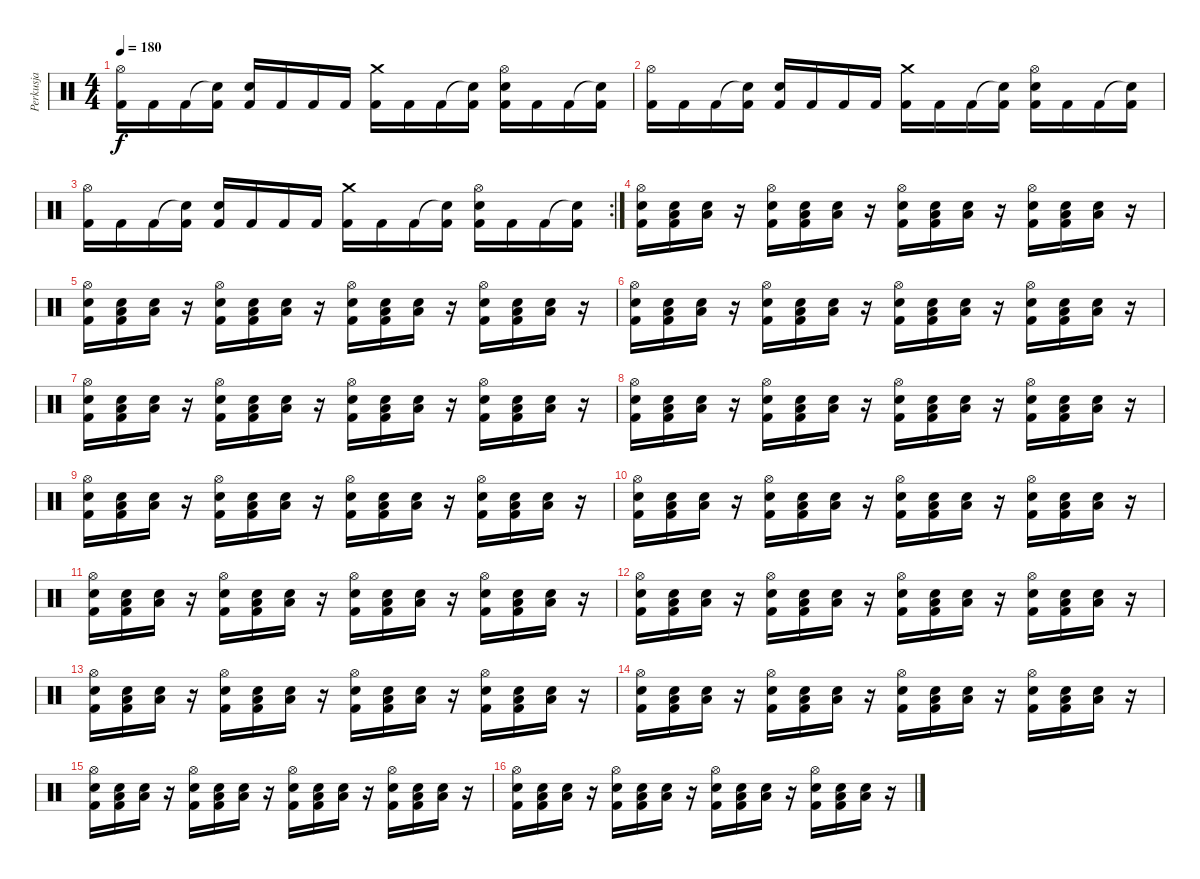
\track ("Perkusja" "Perkusja") {instrument percussion}
\staff {score}
\articulation defaults
\ts (4 4)
\tempo 180
\clef neutral
\ks c
("Hi-Hat (open)" "Kick (hit) 2").16{dy f} "Kick (hit) 2".16 "Kick (hit) 2".16 ("Snare (hit)"{t} "Kick (hit) 2").16 ("Electric Snare (hit)" "Kick (hit) 2").16 "Kick (hit) 2".16 "Kick (hit) 2".16 "Kick (hit) 2".16 ("Crash medium (hit)" "Kick (hit) 2").16 "Kick (hit) 2".16 "Kick (hit) 2".16 ("Snare (hit)"{t} "Kick (hit) 2").16 ("Hi-Hat (open)" "Electric Snare (hit)" "Kick (hit) 2").16 "Kick (hit) 2".16 "Kick (hit) 2".16 ("Snare (hit)"{t} "Kick (hit) 2").16 |
("Hi-Hat (open)" "Kick (hit) 2").16 "Kick (hit) 2".16 "Kick (hit) 2".16 ("Snare (hit)"{t} "Kick (hit) 2").16 ("Electric Snare (hit)" "Kick (hit) 2").16 "Kick (hit) 2".16 "Kick (hit) 2".16 "Kick (hit) 2".16 ("Crash medium (hit)" "Kick (hit) 2").16 "Kick (hit) 2".16 "Kick (hit) 2".16 ("Snare (hit)"{t} "Kick (hit) 2").16 ("Hi-Hat (open)" "Electric Snare (hit)" "Kick (hit) 2").16 "Kick (hit) 2".16 "Kick (hit) 2".16 ("Snare (hit)"{t} "Kick (hit) 2").16 |
\rc 2
("Hi-Hat (open)" "Kick (hit) 2").16 "Kick (hit) 2".16 "Kick (hit) 2".16 ("Snare (hit)"{t} "Kick (hit) 2").16 ("Electric Snare (hit)" "Kick (hit) 2").16 "Kick (hit) 2".16 "Kick (hit) 2".16 "Kick (hit) 2".16 ("Crash medium (hit)" "Kick (hit) 2").16 "Kick (hit) 2".16 "Kick (hit) 2".16 ("Snare (hit)"{t} "Kick (hit) 2").16 ("Hi-Hat (open)" "Electric Snare (hit)" "Kick (hit) 2").16 "Kick (hit) 2".16 "Kick (hit) 2".16 ("Snare (hit)"{t} "Kick (hit) 2").16 |
("Hi-Hat (open)" "Snare (hit) 2" "Kick (hit) 2").16 ("Low Tom (hit)" "Snare (hit) 2" "Kick (hit) 2").16 ("Low Tom (hit)" "Snare (hit) 2").16 r.16 ("Hi-Hat (open)" "Snare (hit) 2" "Kick (hit) 2").16 ("Low Tom (hit)" "Snare (hit) 2" "Kick (hit) 2").16 ("Low Tom (hit)" "Snare (hit) 2").16 r.16 ("Hi-Hat (open)" "Snare (hit) 2" "Kick (hit) 2").16 ("Low Tom (hit)" "Snare (hit) 2" "Kick (hit) 2").16 ("Low Tom (hit)" "Snare (hit) 2").16 r.16 ("Hi-Hat (open)" "Snare (hit) 2" "Kick (hit) 2").16 ("Low Tom (hit)" "Snare (hit) 2" "Kick (hit) 2").16 ("Low Tom (hit)" "Snare (hit) 2").16 r.16 |
("Hi-Hat (open)" "Snare (hit) 2" "Kick (hit) 2").16 ("Low Tom (hit)" "Snare (hit) 2" "Kick (hit) 2").16 ("Low Tom (hit)" "Snare (hit) 2").16 r.16 ("Hi-Hat (open)" "Snare (hit) 2" "Kick (hit) 2").16 ("Low Tom (hit)" "Snare (hit) 2" "Kick (hit) 2").16 ("Low Tom (hit)" "Snare (hit) 2").16 r.16 ("Hi-Hat (open)" "Snare (hit) 2" "Kick (hit) 2").16 ("Low Tom (hit)" "Snare (hit) 2" "Kick (hit) 2").16 ("Low Tom (hit)" "Snare (hit) 2").16 r.16 ("Hi-Hat (open)" "Snare (hit) 2" "Kick (hit) 2").16 ("Low Tom (hit)" "Snare (hit) 2" "Kick (hit) 2").16 ("Low Tom (hit)" "Snare (hit) 2").16 r.16 |
("Hi-Hat (open)" "Snare (hit) 2" "Kick (hit) 2").16 ("Low Tom (hit)" "Snare (hit) 2" "Kick (hit) 2").16 ("Low Tom (hit)" "Snare (hit) 2").16 r.16 ("Hi-Hat (open)" "Snare (hit) 2" "Kick (hit) 2").16 ("Low Tom (hit)" "Snare (hit) 2" "Kick (hit) 2").16 ("Low Tom (hit)" "Snare (hit) 2").16 r.16 ("Hi-Hat (open)" "Snare (hit) 2" "Kick (hit) 2").16 ("Low Tom (hit)" "Snare (hit) 2" "Kick (hit) 2").16 ("Low Tom (hit)" "Snare (hit) 2").16 r.16 ("Hi-Hat (open)" "Snare (hit) 2" "Kick (hit) 2").16 ("Low Tom (hit)" "Snare (hit) 2" "Kick (hit) 2").16 ("Low Tom (hit)" "Snare (hit) 2").16 r.16 |
("Hi-Hat (open)" "Snare (hit) 2" "Kick (hit) 2").16 ("Low Tom (hit)" "Snare (hit) 2" "Kick (hit) 2").16 ("Low Tom (hit)" "Snare (hit) 2").16 r.16 ("Hi-Hat (open)" "Snare (hit) 2" "Kick (hit) 2").16 ("Low Tom (hit)" "Snare (hit) 2" "Kick (hit) 2").16 ("Low Tom (hit)" "Snare (hit) 2").16 r.16 ("Hi-Hat (open)" "Snare (hit) 2" "Kick (hit) 2").16 ("Low Tom (hit)" "Snare (hit) 2" "Kick (hit) 2").16 ("Low Tom (hit)" "Snare (hit) 2").16 r.16 ("Hi-Hat (open)" "Snare (hit) 2" "Kick (hit) 2").16 ("Low Tom (hit)" "Snare (hit) 2" "Kick (hit) 2").16 ("Low Tom (hit)" "Snare (hit) 2").16 r.16 |
("Hi-Hat (open)" "Snare (hit) 2" "Kick (hit) 2").16 ("Low Tom (hit)" "Snare (hit) 2" "Kick (hit) 2").16 ("Low Tom (hit)" "Snare (hit) 2").16 r.16 ("Hi-Hat (open)" "Snare (hit) 2" "Kick (hit) 2").16 ("Low Tom (hit)" "Snare (hit) 2" "Kick (hit) 2").16 ("Low Tom (hit)" "Snare (hit) 2").16 r.16 ("Hi-Hat (open)" "Snare (hit) 2" "Kick (hit) 2").16 ("Low Tom (hit)" "Snare (hit) 2" "Kick (hit) 2").16 ("Low Tom (hit)" "Snare (hit) 2").16 r.16 ("Hi-Hat (open)" "Snare (hit) 2" "Kick (hit) 2").16 ("Low Tom (hit)" "Snare (hit) 2" "Kick (hit) 2").16 ("Low Tom (hit)" "Snare (hit) 2").16 r.16 |
("Hi-Hat (open)" "Snare (hit) 2" "Kick (hit) 2").16 ("Low Tom (hit)" "Snare (hit) 2" "Kick (hit) 2").16 ("Low Tom (hit)" "Snare (hit) 2").16 r.16 ("Hi-Hat (open)" "Snare (hit) 2" "Kick (hit) 2").16 ("Low Tom (hit)" "Snare (hit) 2" "Kick (hit) 2").16 ("Low Tom (hit)" "Snare (hit) 2").16 r.16 ("Hi-Hat (open)" "Snare (hit) 2" "Kick (hit) 2").16 ("Low Tom (hit)" "Snare (hit) 2" "Kick (hit) 2").16 ("Low Tom (hit)" "Snare (hit) 2").16 r.16 ("Hi-Hat (open)" "Snare (hit) 2" "Kick (hit) 2").16 ("Low Tom (hit)" "Snare (hit) 2" "Kick (hit) 2").16 ("Low Tom (hit)" "Snare (hit) 2").16 r.16 |
("Hi-Hat (open)" "Snare (hit) 2" "Kick (hit) 2").16 ("Low Tom (hit)" "Snare (hit) 2" "Kick (hit) 2").16 ("Low Tom (hit)" "Snare (hit) 2").16 r.16 ("Hi-Hat (open)" "Snare (hit) 2" "Kick (hit) 2").16 ("Low Tom (hit)" "Snare (hit) 2" "Kick (hit) 2").16 ("Low Tom (hit)" "Snare (hit) 2").16 r.16 ("Hi-Hat (open)" "Snare (hit) 2" "Kick (hit) 2").16 ("Low Tom (hit)" "Snare (hit) 2" "Kick (hit) 2").16 ("Low Tom (hit)" "Snare (hit) 2").16 r.16 ("Hi-Hat (open)" "Snare (hit) 2" "Kick (hit) 2").16 ("Low Tom (hit)" "Snare (hit) 2" "Kick (hit) 2").16 ("Low Tom (hit)" "Snare (hit) 2").16 r.16 |
("Hi-Hat (open)" "Snare (hit) 2" "Kick (hit) 2").16 ("Low Tom (hit)" "Snare (hit) 2" "Kick (hit) 2").16 ("Low Tom (hit)" "Snare (hit) 2").16 r.16 ("Hi-Hat (open)" "Snare (hit) 2" "Kick (hit) 2").16 ("Low Tom (hit)" "Snare (hit) 2" "Kick (hit) 2").16 ("Low Tom (hit)" "Snare (hit) 2").16 r.16 ("Hi-Hat (open)" "Snare (hit) 2" "Kick (hit) 2").16 ("Low Tom (hit)" "Snare (hit) 2" "Kick (hit) 2").16 ("Low Tom (hit)" "Snare (hit) 2").16 r.16 ("Hi-Hat (open)" "Snare (hit) 2" "Kick (hit) 2").16 ("Low Tom (hit)" "Snare (hit) 2" "Kick (hit) 2").16 ("Low Tom (hit)" "Snare (hit) 2").16 r.16 |
("Hi-Hat (open)" "Snare (hit) 2" "Kick (hit) 2").16 ("Low Tom (hit)" "Snare (hit) 2" "Kick (hit) 2").16 ("Low Tom (hit)" "Snare (hit) 2").16 r.16 ("Hi-Hat (open)" "Snare (hit) 2" "Kick (hit) 2").16 ("Low Tom (hit)" "Snare (hit) 2" "Kick (hit) 2").16 ("Low Tom (hit)" "Snare (hit) 2").16 r.16 ("Hi-Hat (open)" "Snare (hit) 2" "Kick (hit) 2").16 ("Low Tom (hit)" "Snare (hit) 2" "Kick (hit) 2").16 ("Low Tom (hit)" "Snare (hit) 2").16 r.16 ("Hi-Hat (open)" "Snare (hit) 2" "Kick (hit) 2").16 ("Low Tom (hit)" "Snare (hit) 2" "Kick (hit) 2").16 ("Low Tom (hit)" "Snare (hit) 2").16 r.16 |
("Hi-Hat (open)" "Snare (hit) 2" "Kick (hit) 2").16 ("Low Tom (hit)" "Snare (hit) 2" "Kick (hit) 2").16 ("Low Tom (hit)" "Snare (hit) 2").16 r.16 ("Hi-Hat (open)" "Snare (hit) 2" "Kick (hit) 2").16 ("Low Tom (hit)" "Snare (hit) 2" "Kick (hit) 2").16 ("Low Tom (hit)" "Snare (hit) 2").16 r.16 ("Hi-Hat (open)" "Snare (hit) 2" "Kick (hit) 2").16 ("Low Tom (hit)" "Snare (hit) 2" "Kick (hit) 2").16 ("Low Tom (hit)" "Snare (hit) 2").16 r.16 ("Hi-Hat (open)" "Snare (hit) 2" "Kick (hit) 2").16 ("Low Tom (hit)" "Snare (hit) 2" "Kick (hit) 2").16 ("Low Tom (hit)" "Snare (hit) 2").16 r.16 |
("Hi-Hat (open)" "Snare (hit) 2" "Kick (hit) 2").16 ("Low Tom (hit)" "Snare (hit) 2" "Kick (hit) 2").16 ("Low Tom (hit)" "Snare (hit) 2").16 r.16 ("Hi-Hat (open)" "Snare (hit) 2" "Kick (hit) 2").16 ("Low Tom (hit)" "Snare (hit) 2" "Kick (hit) 2").16 ("Low Tom (hit)" "Snare (hit) 2").16 r.16 ("Hi-Hat (open)" "Snare (hit) 2" "Kick (hit) 2").16 ("Low Tom (hit)" "Snare (hit) 2" "Kick (hit) 2").16 ("Low Tom (hit)" "Snare (hit) 2").16 r.16 ("Hi-Hat (open)" "Snare (hit) 2" "Kick (hit) 2").16 ("Low Tom (hit)" "Snare (hit) 2" "Kick (hit) 2").16 ("Low Tom (hit)" "Snare (hit) 2").16 r.16 |
("Hi-Hat (open)" "Snare (hit) 2" "Kick (hit) 2").16 ("Low Tom (hit)" "Snare (hit) 2" "Kick (hit) 2").16 ("Low Tom (hit)" "Snare (hit) 2").16 r.16 ("Hi-Hat (open)" "Snare (hit) 2" "Kick (hit) 2").16 ("Low Tom (hit)" "Snare (hit) 2" "Kick (hit) 2").16 ("Low Tom (hit)" "Snare (hit) 2").16 r.16 ("Hi-Hat (open)" "Snare (hit) 2" "Kick (hit) 2").16 ("Low Tom (hit)" "Snare (hit) 2" "Kick (hit) 2").16 ("Low Tom (hit)" "Snare (hit) 2").16 r.16 ("Hi-Hat (open)" "Snare (hit) 2" "Kick (hit) 2").16 ("Low Tom (hit)" "Snare (hit) 2" "Kick (hit) 2").16 ("Low Tom (hit)" "Snare (hit) 2").16 r.16 |
("Hi-Hat (open)" "Snare (hit) 2" "Kick (hit) 2").16 ("Low Tom (hit)" "Snare (hit) 2" "Kick (hit) 2").16 ("Low Tom (hit)" "Snare (hit) 2").16 r.16 ("Hi-Hat (open)" "Snare (hit) 2" "Kick (hit) 2").16 ("Low Tom (hit)" "Snare (hit) 2" "Kick (hit) 2").16 ("Low Tom (hit)" "Snare (hit) 2").16 r.16 ("Hi-Hat (open)" "Snare (hit) 2" "Kick (hit) 2").16 ("Low Tom (hit)" "Snare (hit) 2" "Kick (hit) 2").16 ("Low Tom (hit)" "Snare (hit) 2").16 r.16 ("Hi-Hat (open)" "Snare (hit) 2" "Kick (hit) 2").16 ("Low Tom (hit)" "Snare (hit) 2" "Kick (hit) 2").16 ("Low Tom (hit)" "Snare (hit) 2").16 r.16
